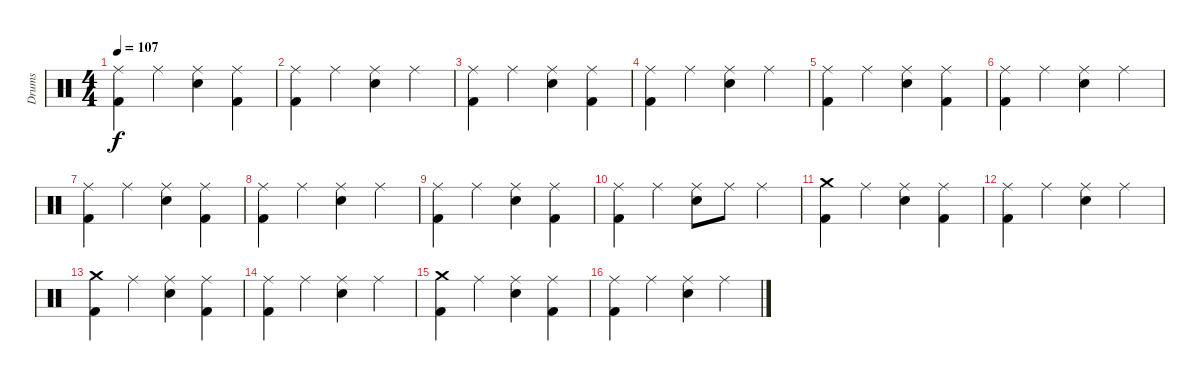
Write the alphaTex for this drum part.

\track ("Drums" "Drums") {instrument percussion}
\staff {score}
\articulation defaults
\ts (4 4)
\tempo 107
\clef neutral
\ks c
("Ride (middle)" "Kick (hit) 2").4{dy f} "Ride (middle)".4 ("Ride (middle)" "Electric Snare (hit)").4 ("Ride (middle)" "Kick (hit) 2").4 |
("Ride (middle)" "Kick (hit) 2").4 "Ride (middle)".4 ("Ride (middle)" "Electric Snare (hit)").4 "Ride (middle)".4 |
("Ride (middle)" "Kick (hit) 2").4 "Ride (middle)".4 ("Ride (middle)" "Electric Snare (hit)").4 ("Ride (middle)" "Kick (hit) 2").4 |
("Ride (middle)" "Kick (hit) 2").4 "Ride (middle)".4 ("Ride (middle)" "Electric Snare (hit)").4 "Ride (middle)".4 |
("Ride (middle)" "Kick (hit) 2").4 "Ride (middle)".4 ("Ride (middle)" "Electric Snare (hit)").4 ("Ride (middle)" "Kick (hit) 2").4 |
("Ride (middle)" "Kick (hit) 2").4 "Ride (middle)".4 ("Ride (middle)" "Electric Snare (hit)").4 "Ride (middle)".4 |
("Ride (middle)" "Kick (hit) 2").4 "Ride (middle)".4 ("Ride (middle)" "Electric Snare (hit)").4 ("Ride (middle)" "Kick (hit) 2").4 |
("Ride (middle)" "Kick (hit) 2").4 "Ride (middle)".4 ("Ride (middle)" "Electric Snare (hit)").4 "Ride (middle)".4 |
("Ride (middle)" "Kick (hit) 2").4 "Ride (middle)".4 ("Ride (middle)" "Electric Snare (hit)").4 ("Ride (middle)" "Kick (hit) 2").4 |
("Ride (middle)" "Kick (hit) 2").4 "Ride (middle)".4 ("Ride (middle)" "Electric Snare (hit)").8 "Ride (middle)".8 "Ride (middle)".4 |
("Crash medium (hit)" "Kick (hit) 2").4 "Ride (middle)".4 ("Ride (middle)" "Electric Snare (hit)").4 ("Ride (middle)" "Kick (hit) 2").4 |
("Ride (middle)" "Kick (hit) 2").4 "Ride (middle)".4 ("Ride (middle)" "Electric Snare (hit)").4 "Ride (middle)".4 |
("Crash medium (hit)" "Kick (hit) 2").4 "Ride (middle)".4 ("Ride (middle)" "Electric Snare (hit)").4 ("Ride (middle)" "Kick (hit) 2").4 |
("Ride (middle)" "Kick (hit) 2").4 "Ride (middle)".4 ("Ride (middle)" "Electric Snare (hit)").4 "Ride (middle)".4 |
("Crash medium (hit)" "Kick (hit) 2").4 "Ride (middle)".4 ("Ride (middle)" "Electric Snare (hit)").4 ("Ride (middle)" "Kick (hit) 2").4 |
("Ride (middle)" "Kick (hit) 2").4 "Ride (middle)".4 ("Ride (middle)" "Electric Snare (hit)").4 "Ride (middle)".4
